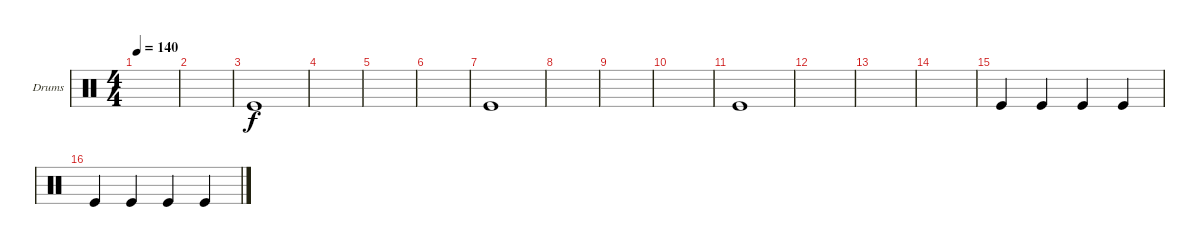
\defaultSystemsLayout 4
\bracketExtendMode groupsimilarinstruments
\firstSystemTrackNameOrientation horizontal
\otherSystemsTrackNameOrientation horizontal
\track ("Helders" "Drums") {instrument percussion}
\staff {score}
\articulation defaults
\ts (4 4)
\tempo 140
\clef neutral
\ks c
|
|
"Kick (hit)".1 |
|
|
|
"Kick (hit)".1 |
|
|
|
"Kick (hit)".1 |
|
|
|
"Kick (hit)".4 "Kick (hit)".4 "Kick (hit)".4 "Kick (hit)".4 |
"Kick (hit)".4 "Kick (hit)".4 "Kick (hit)".4 "Kick (hit)".4
